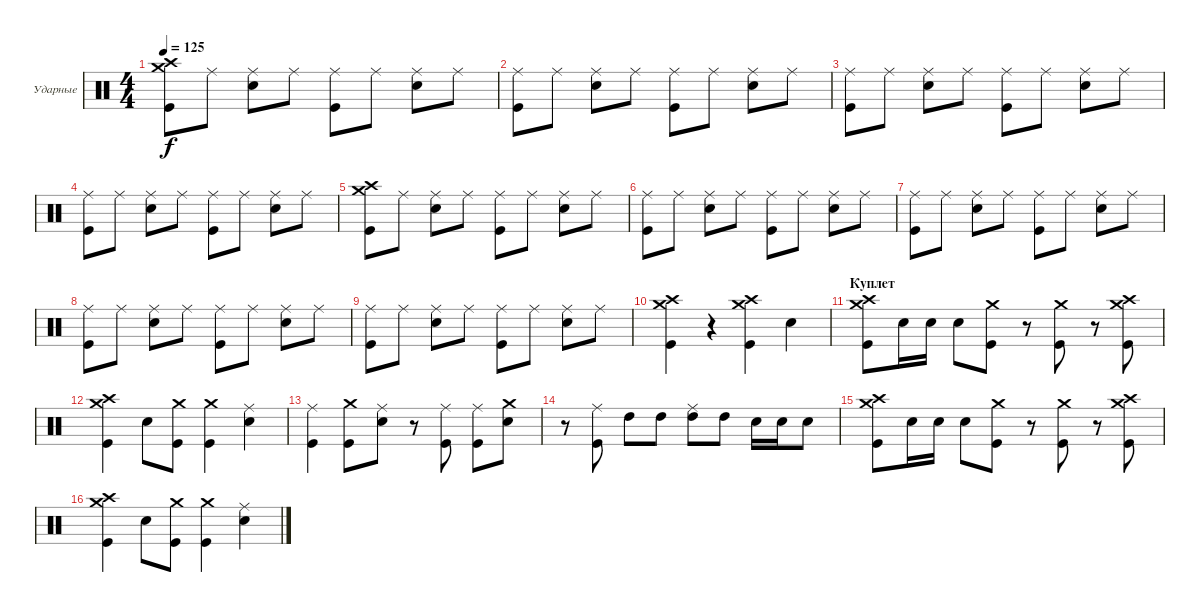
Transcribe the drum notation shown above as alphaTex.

\bracketExtendMode groupsimilarinstruments
\firstSystemTrackNameOrientation horizontal
\otherSystemsTrackNameOrientation horizontal
\track ("Максим Удалов" "Ударные") {instrument percussion}
\staff {score}
\articulation defaults
\ts (4 4)
\tempo 125
\clef neutral
\ks c
("Kick (hit)" "Crash medium (hit)" "Crash high (hit)").8{dy f} "Ride (middle)".8 ("Snare (hit) 2" "Ride (middle)").8 "Ride (middle)".8 ("Kick (hit)" "Ride (middle)").8 "Ride (middle)".8 ("Snare (hit) 2" "Ride (middle)").8 "Ride (middle)".8 |
("Kick (hit)" "Ride (middle)").8 "Ride (middle)".8 ("Snare (hit) 2" "Ride (middle)").8 "Ride (middle)".8 ("Kick (hit)" "Ride (middle)").8 "Ride (middle)".8 ("Snare (hit) 2" "Ride (middle)").8 "Ride (middle)".8 |
("Kick (hit)" "Ride (middle)").8 "Ride (middle)".8 ("Snare (hit) 2" "Ride (middle)").8 "Ride (middle)".8 ("Kick (hit)" "Ride (middle)").8 "Ride (middle)".8 ("Snare (hit) 2" "Ride (middle)").8 "Ride (middle)".8 |
("Kick (hit)" "Ride (middle)").8 "Ride (middle)".8 ("Snare (hit) 2" "Ride (middle)").8 "Ride (middle)".8 ("Kick (hit)" "Ride (middle)").8 "Ride (middle)".8 ("Snare (hit) 2" "Ride (middle)").8 "Ride (middle)".8 |
("Crash medium (hit)" "Crash high (hit)" "Kick (hit)").8 "Ride (middle)".8 ("Snare (hit) 2" "Ride (middle)").8 "Ride (middle)".8 ("Kick (hit)" "Ride (middle)").8 "Ride (middle)".8 ("Snare (hit) 2" "Ride (middle)").8 "Ride (middle)".8 |
("Kick (hit)" "Ride (middle)").8 "Ride (middle)".8 ("Snare (hit) 2" "Ride (middle)").8 "Ride (middle)".8 ("Kick (hit)" "Ride (middle)").8 "Ride (middle)".8 ("Snare (hit) 2" "Ride (middle)").8 "Ride (middle)".8 |
("Kick (hit)" "Ride (middle)").8 "Ride (middle)".8 ("Snare (hit) 2" "Ride (middle)").8 "Ride (middle)".8 ("Kick (hit)" "Ride (middle)").8 "Ride (middle)".8 ("Snare (hit) 2" "Ride (middle)").8 "Ride (middle)".8 |
("Kick (hit)" "Ride (middle)").8 "Ride (middle)".8 ("Snare (hit) 2" "Ride (middle)").8 "Ride (middle)".8 ("Kick (hit)" "Ride (middle)").8 "Ride (middle)".8 ("Snare (hit) 2" "Ride (middle)").8 "Ride (middle)".8 |
("Kick (hit)" "Ride (middle)").8 "Ride (middle)".8 ("Snare (hit) 2" "Ride (middle)").8 "Ride (middle)".8 ("Kick (hit)" "Ride (middle)").8 "Ride (middle)".8 ("Snare (hit) 2" "Ride (middle)").8 "Ride (middle)".8 |
("Kick (hit)" "Crash medium (hit)" "Crash high (hit)").4 r.4 ("Kick (hit)" "Crash medium (hit)" "Crash high (hit)").4 "Snare (hit) 2".4 |
\section ("" "Куплет")
("Kick (hit)" "Crash medium (hit)" "Crash high (hit)").8 "Snare (hit) 2".16 "Snare (hit) 2".16 "Snare (hit) 2".8 ("Kick (hit)" "Crash medium (hit)").8 r.8 ("Kick (hit)" "Crash medium (hit)").8 r.8 ("Kick (hit)" "Crash high (hit)" "Crash medium (hit)").8 |
("Kick (hit)" "Crash medium (hit)" "Crash high (hit)").4 "Snare (hit) 2".8 ("Kick (hit)" "Crash medium (hit)").8 ("Kick (hit)" "Crash medium (hit)").4 ("Snare (hit) 2" "Ride (middle)").4 |
("Kick (hit)" "Ride (middle)").4 ("Kick (hit)" "Crash medium (hit)").8 ("Snare (hit) 2" "Ride (middle)").8 r.8 ("Kick (hit)" "Ride (middle)").8 ("Kick (hit)" "Ride (middle)").8 ("Snare (hit) 2" "Crash medium (hit)").8 |
r.8 ("Kick (hit)" "Ride (middle)").8 "High Tom (hit)".8 "High Tom (hit)".8 ("High Tom (hit)" "Ride (middle)").8 "High Tom (hit)".8 "Snare (hit) 2".16 "Snare (hit) 2".16 "Snare (hit) 2".8 |
("Kick (hit)" "Crash medium (hit)" "Crash high (hit)").8 "Snare (hit) 2".16 "Snare (hit) 2".16 "Snare (hit) 2".8 ("Kick (hit)" "Crash medium (hit)").8 r.8 ("Kick (hit)" "Crash medium (hit)").8 r.8 ("Kick (hit)" "Crash high (hit)" "Crash medium (hit)").8 |
("Kick (hit)" "Crash medium (hit)" "Crash high (hit)").4 "Snare (hit) 2".8 ("Kick (hit)" "Crash medium (hit)").8 ("Kick (hit)" "Crash medium (hit)").4 ("Snare (hit) 2" "Ride (middle)").4
